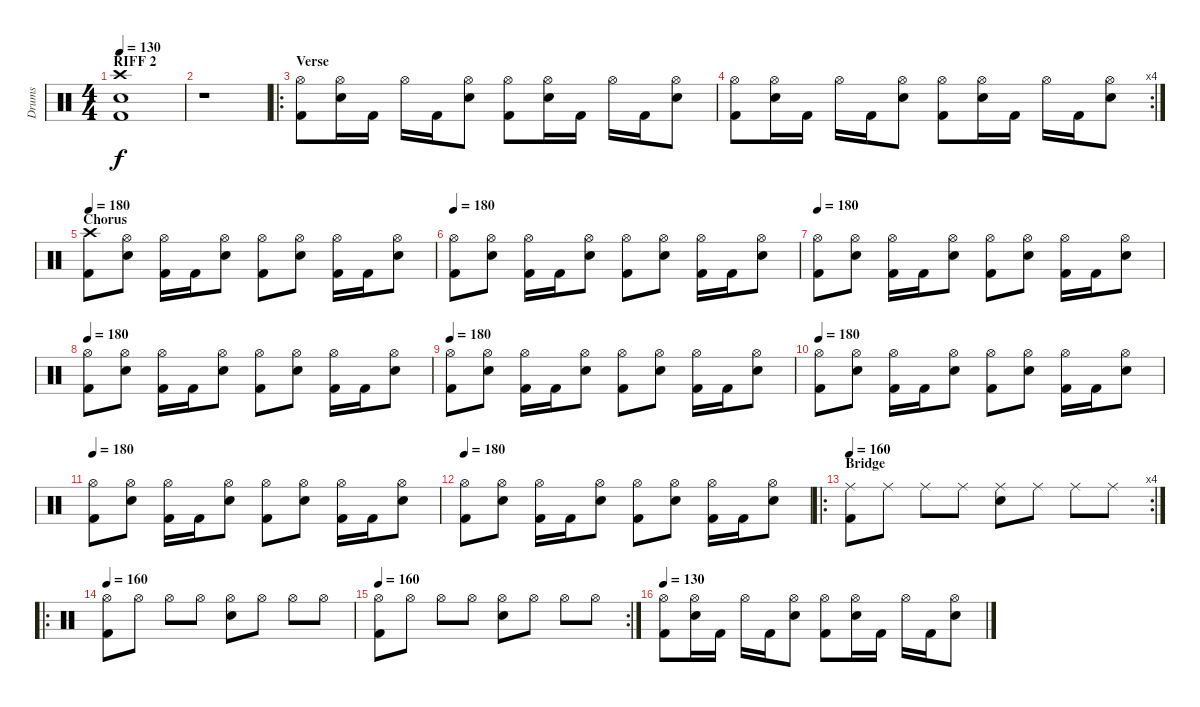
\track ("Drums" "Drums") {instrument percussion}
\staff {score}
\articulation defaults
\ts (4 4)
\section ("" "RIFF 2")
\tempo 130
\clef neutral
\ks c
("Crash high (hit)" "Electric Snare (hit)" "Kick (hit) 2").1{dy f} |
r.1 |
\ro
\section ("" "Verse")
("Hi-Hat (open)" "Kick (hit) 2").8 ("Hi-Hat (open)" "Electric Snare (hit)").16 "Kick (hit) 2".16 "Hi-Hat (open)".16 "Kick (hit) 2".16 ("Hi-Hat (open)" "Electric Snare (hit)").8 ("Hi-Hat (open)" "Kick (hit) 2").8 ("Hi-Hat (open)" "Electric Snare (hit)").16 "Kick (hit) 2".16 "Hi-Hat (open)".16 "Kick (hit) 2".16 ("Hi-Hat (open)" "Electric Snare (hit)").8 |
\rc 4
("Hi-Hat (open)" "Kick (hit) 2").8 ("Hi-Hat (open)" "Electric Snare (hit)").16 "Kick (hit) 2".16 "Hi-Hat (open)".16 "Kick (hit) 2".16 ("Hi-Hat (open)" "Electric Snare (hit)").8 ("Hi-Hat (open)" "Kick (hit) 2").8 ("Hi-Hat (open)" "Electric Snare (hit)").16 "Kick (hit) 2".16 "Hi-Hat (open)".16 "Kick (hit) 2".16 ("Hi-Hat (open)" "Electric Snare (hit)").8 |
\section ("" "Chorus")
\tempo 180
("Crash high (hit)" "Kick (hit) 2").8 ("Hi-Hat (open)" "Electric Snare (hit)").8 ("Hi-Hat (open)" "Kick (hit) 2").16 "Kick (hit) 2".16 ("Hi-Hat (open)" "Electric Snare (hit)").8 ("Hi-Hat (open)" "Kick (hit) 2").8 ("Hi-Hat (open)" "Electric Snare (hit)").8 ("Hi-Hat (open)" "Kick (hit) 2").16 "Kick (hit) 2".16 ("Hi-Hat (open)" "Electric Snare (hit)").8 |
\tempo 180
("Hi-Hat (open)" "Kick (hit) 2").8 ("Hi-Hat (open)" "Electric Snare (hit)").8 ("Hi-Hat (open)" "Kick (hit) 2").16 "Kick (hit) 2".16 ("Hi-Hat (open)" "Electric Snare (hit)").8 ("Hi-Hat (open)" "Kick (hit) 2").8 ("Hi-Hat (open)" "Electric Snare (hit)").8 ("Hi-Hat (open)" "Kick (hit) 2").16 "Kick (hit) 2".16 ("Hi-Hat (open)" "Electric Snare (hit)").8 |
\tempo 180
("Hi-Hat (open)" "Kick (hit) 2").8 ("Hi-Hat (open)" "Electric Snare (hit)").8 ("Hi-Hat (open)" "Kick (hit) 2").16 "Kick (hit) 2".16 ("Hi-Hat (open)" "Electric Snare (hit)").8 ("Hi-Hat (open)" "Kick (hit) 2").8 ("Hi-Hat (open)" "Electric Snare (hit)").8 ("Hi-Hat (open)" "Kick (hit) 2").16 "Kick (hit) 2".16 ("Hi-Hat (open)" "Electric Snare (hit)").8 |
\tempo 180
("Hi-Hat (open)" "Kick (hit) 2").8 ("Hi-Hat (open)" "Electric Snare (hit)").8 ("Hi-Hat (open)" "Kick (hit) 2").16 "Kick (hit) 2".16 ("Hi-Hat (open)" "Electric Snare (hit)").8 ("Hi-Hat (open)" "Kick (hit) 2").8 ("Hi-Hat (open)" "Electric Snare (hit)").8 ("Hi-Hat (open)" "Kick (hit) 2").16 "Kick (hit) 2".16 ("Hi-Hat (open)" "Electric Snare (hit)").8 |
\tempo 180
("Hi-Hat (open)" "Kick (hit) 2").8 ("Hi-Hat (open)" "Electric Snare (hit)").8 ("Hi-Hat (open)" "Kick (hit) 2").16 "Kick (hit) 2".16 ("Hi-Hat (open)" "Electric Snare (hit)").8 ("Hi-Hat (open)" "Kick (hit) 2").8 ("Hi-Hat (open)" "Electric Snare (hit)").8 ("Hi-Hat (open)" "Kick (hit) 2").16 "Kick (hit) 2".16 ("Hi-Hat (open)" "Electric Snare (hit)").8 |
\tempo 180
("Hi-Hat (open)" "Kick (hit) 2").8 ("Hi-Hat (open)" "Electric Snare (hit)").8 ("Hi-Hat (open)" "Kick (hit) 2").16 "Kick (hit) 2".16 ("Hi-Hat (open)" "Electric Snare (hit)").8 ("Hi-Hat (open)" "Kick (hit) 2").8 ("Hi-Hat (open)" "Electric Snare (hit)").8 ("Hi-Hat (open)" "Kick (hit) 2").16 "Kick (hit) 2".16 ("Hi-Hat (open)" "Electric Snare (hit)").8 |
\tempo 180
("Hi-Hat (open)" "Kick (hit) 2").8 ("Hi-Hat (open)" "Electric Snare (hit)").8 ("Hi-Hat (open)" "Kick (hit) 2").16 "Kick (hit) 2".16 ("Hi-Hat (open)" "Electric Snare (hit)").8 ("Hi-Hat (open)" "Kick (hit) 2").8 ("Hi-Hat (open)" "Electric Snare (hit)").8 ("Hi-Hat (open)" "Kick (hit) 2").16 "Kick (hit) 2".16 ("Hi-Hat (open)" "Electric Snare (hit)").8 |
\tempo 180
("Hi-Hat (open)" "Kick (hit) 2").8 ("Hi-Hat (open)" "Electric Snare (hit)").8 ("Hi-Hat (open)" "Kick (hit) 2").16 "Kick (hit) 2".16 ("Hi-Hat (open)" "Electric Snare (hit)").8 ("Hi-Hat (open)" "Kick (hit) 2").8 ("Hi-Hat (open)" "Electric Snare (hit)").8 ("Hi-Hat (open)" "Kick (hit) 2").16 "Kick (hit) 2".16 ("Hi-Hat (open)" "Electric Snare (hit)").8 |
\ro
\rc 4
\section ("" "Bridge")
\tempo 180
\tempo 160
("Ride (middle)" "Kick (hit) 2").8 "Ride (middle)".8 "Ride (middle)".8 "Ride (middle)".8 ("Ride (middle)" "Electric Snare (hit)").8 "Ride (middle)".8 "Ride (middle)".8 "Ride (middle)".8 |
\ro
\tempo 180
\tempo 160
("Hi-Hat (open)" "Kick (hit) 2").8 "Hi-Hat (open)".8 "Hi-Hat (open)".8 "Hi-Hat (open)".8 ("Hi-Hat (open)" "Electric Snare (hit)").8 "Hi-Hat (open)".8 "Hi-Hat (open)".8 "Hi-Hat (open)".8 |
\rc 2
\tempo 180
\tempo 160
("Hi-Hat (open)" "Kick (hit) 2").8 "Hi-Hat (open)".8 "Hi-Hat (open)".8 "Hi-Hat (open)".8 ("Hi-Hat (open)" "Electric Snare (hit)").8 "Hi-Hat (open)".8 "Hi-Hat (open)".8 "Hi-Hat (open)".8 |
\tempo 130
("Hi-Hat (open)" "Kick (hit) 2").8 ("Hi-Hat (open)" "Electric Snare (hit)").16 "Kick (hit) 2".16 "Hi-Hat (open)".16 "Kick (hit) 2".16 ("Hi-Hat (open)" "Electric Snare (hit)").8 ("Hi-Hat (open)" "Kick (hit) 2").8 ("Hi-Hat (open)" "Electric Snare (hit)").16 "Kick (hit) 2".16 "Hi-Hat (open)".16 "Kick (hit) 2".16 ("Hi-Hat (open)" "Electric Snare (hit)").8
